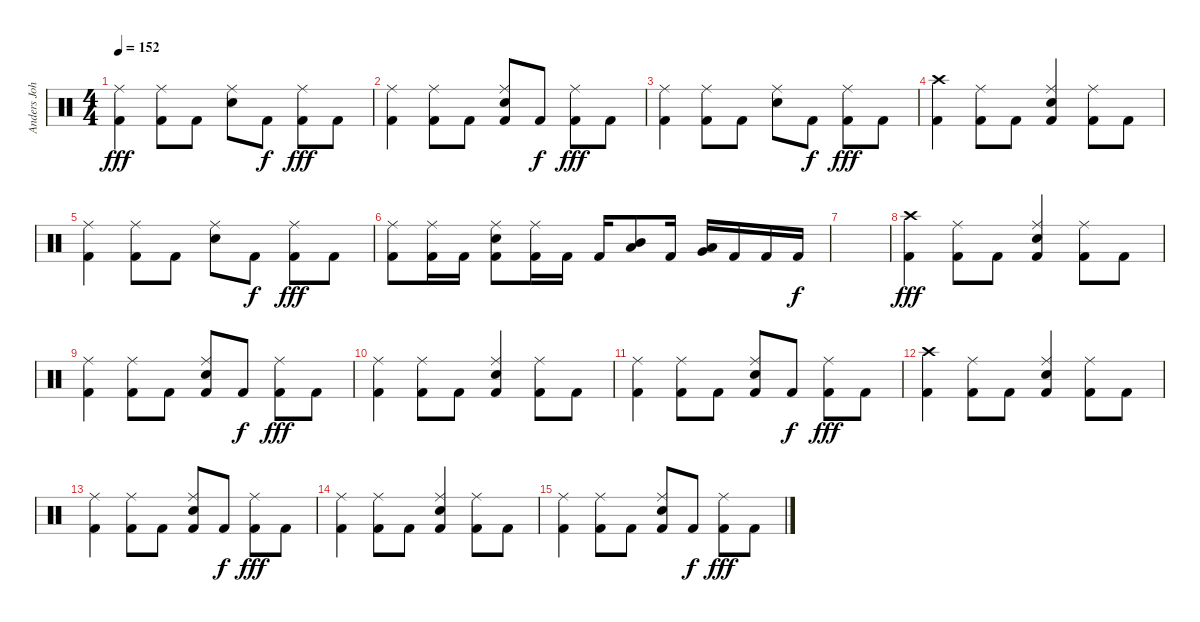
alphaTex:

\track ("Anders Johansson (Drums)" "Anders Joh") {instrument percussion}
\staff {score}
\articulation defaults
\ts (4 4)
\tempo 152
\clef neutral
\ks c
("Kick (hit) 2" "Ride (middle)").4{dy fff} ("Kick (hit) 2" "Ride (middle)").8 "Kick (hit) 2".8 ("Electric Snare (hit)" "Ride (middle)").8 "Kick (hit) 2".8{dy f} ("Kick (hit) 2" "Ride (middle)").8{dy fff} "Kick (hit) 2".8 |
("Kick (hit) 2" "Ride (middle)").4 ("Kick (hit) 2" "Ride (middle)").8 "Kick (hit) 2".8 ("Kick (hit) 2" "Electric Snare (hit)" "Ride (middle)").8 "Kick (hit) 2".8{dy f} ("Kick (hit) 2" "Ride (middle)").8{dy fff} "Kick (hit) 2".8 |
("Kick (hit) 2" "Ride (middle)").4 ("Kick (hit) 2" "Ride (middle)").8 "Kick (hit) 2".8 ("Electric Snare (hit)" "Ride (middle)").8 "Kick (hit) 2".8{dy f} ("Kick (hit) 2" "Ride (middle)").8{dy fff} "Kick (hit) 2".8 |
("Kick (hit) 2" "Crash high (hit)").4 ("Kick (hit) 2" "Ride (middle)").8 "Kick (hit) 2".8 ("Kick (hit) 2" "Electric Snare (hit)" "Ride (middle)").4 ("Kick (hit) 2" "Ride (middle)").8 "Kick (hit) 2".8 |
("Kick (hit) 2" "Ride (middle)").4 ("Kick (hit) 2" "Ride (middle)").8 "Kick (hit) 2".8 ("Electric Snare (hit)" "Ride (middle)").8 "Kick (hit) 2".8{dy f} ("Kick (hit) 2" "Ride (middle)").8{dy fff} "Kick (hit) 2".8 |
("Kick (hit) 2" "Ride (middle)").8 ("Kick (hit) 2" "Ride (middle)").16 "Kick (hit) 2".16 ("Kick (hit) 2" "Electric Snare (hit)" "Ride (middle)").8 ("Kick (hit) 2" "Ride (middle)").16 "Kick (hit) 2".16 "Kick (hit) 2".16{volume 16} ("Low Tom (hit)" "Mid Tom (hit)").8{volume 16} "Kick (hit) 2".16{volume 15} ("Low Tom (hit)" "Very Low Tom (hit)").16{volume 15} "Kick (hit) 2".16{volume 15} "Kick (hit) 2".16{volume 15} "Kick (hit) 2".16{dy f} |
|
("Kick (hit) 2" "Crash high (hit)").4{dy fff volume 14} ("Kick (hit) 2" "Ride (middle)").8{volume 14} "Kick (hit) 2".8{volume 14} ("Kick (hit) 2" "Electric Snare (hit)" "Ride (middle)").4{volume 13} ("Kick (hit) 2" "Ride (middle)").8{volume 13} "Kick (hit) 2".8{volume 13} |
("Kick (hit) 2" "Ride (middle)").4{volume 12} ("Kick (hit) 2" "Ride (middle)").8{volume 12} "Kick (hit) 2".8{volume 12} ("Kick (hit) 2" "Electric Snare (hit)" "Ride (middle)").8{volume 12} "Kick (hit) 2".8{dy f} ("Kick (hit) 2" "Ride (middle)").8{dy fff volume 11} "Kick (hit) 2".8{volume 11} |
("Kick (hit) 2" "Ride (middle)").4{volume 11} ("Kick (hit) 2" "Ride (middle)").8{volume 10} "Kick (hit) 2".8{volume 10} ("Kick (hit) 2" "Electric Snare (hit)" "Ride (middle)").4{volume 10} ("Kick (hit) 2" "Ride (middle)").8{volume 9} "Kick (hit) 2".8{volume 9} |
("Kick (hit) 2" "Ride (middle)").4{volume 9} ("Kick (hit) 2" "Ride (middle)").8{volume 8} "Kick (hit) 2".8{volume 8} ("Kick (hit) 2" "Electric Snare (hit)" "Ride (middle)").8{volume 8} "Kick (hit) 2".8{dy f} ("Kick (hit) 2" "Ride (middle)").8{dy fff volume 8} "Kick (hit) 2".8{volume 7} |
("Kick (hit) 2" "Crash high (hit)").4{volume 7} ("Kick (hit) 2" "Ride (middle)").8{volume 7} "Kick (hit) 2".8{volume 6} ("Kick (hit) 2" "Electric Snare (hit)" "Ride (middle)").4{volume 6} ("Kick (hit) 2" "Ride (middle)").8{volume 6} "Kick (hit) 2".8{volume 6} |
("Kick (hit) 2" "Ride (middle)").4{volume 5} ("Kick (hit) 2" "Ride (middle)").8{volume 5} "Kick (hit) 2".8{volume 5} ("Kick (hit) 2" "Electric Snare (hit)" "Ride (middle)").8{volume 4} "Kick (hit) 2".8{dy f} ("Kick (hit) 2" "Ride (middle)").8{dy fff volume 4} "Kick (hit) 2".8{volume 4} |
("Kick (hit) 2" "Ride (middle)").4{volume 4} ("Kick (hit) 2" "Ride (middle)").8{volume 3} "Kick (hit) 2".8{volume 3} ("Kick (hit) 2" "Electric Snare (hit)" "Ride (middle)").4{volume 3} ("Kick (hit) 2" "Ride (middle)").8{volume 2} "Kick (hit) 2".8{volume 2} |
("Kick (hit) 2" "Ride (middle)").4{volume 2} ("Kick (hit) 2" "Ride (middle)").8{volume 1} "Kick (hit) 2".8{volume 1} ("Kick (hit) 2" "Electric Snare (hit)" "Ride (middle)").8{volume 1} "Kick (hit) 2".8{dy f} ("Kick (hit) 2" "Ride (middle)").8{dy fff volume 0} "Kick (hit) 2".8{volume 0}
